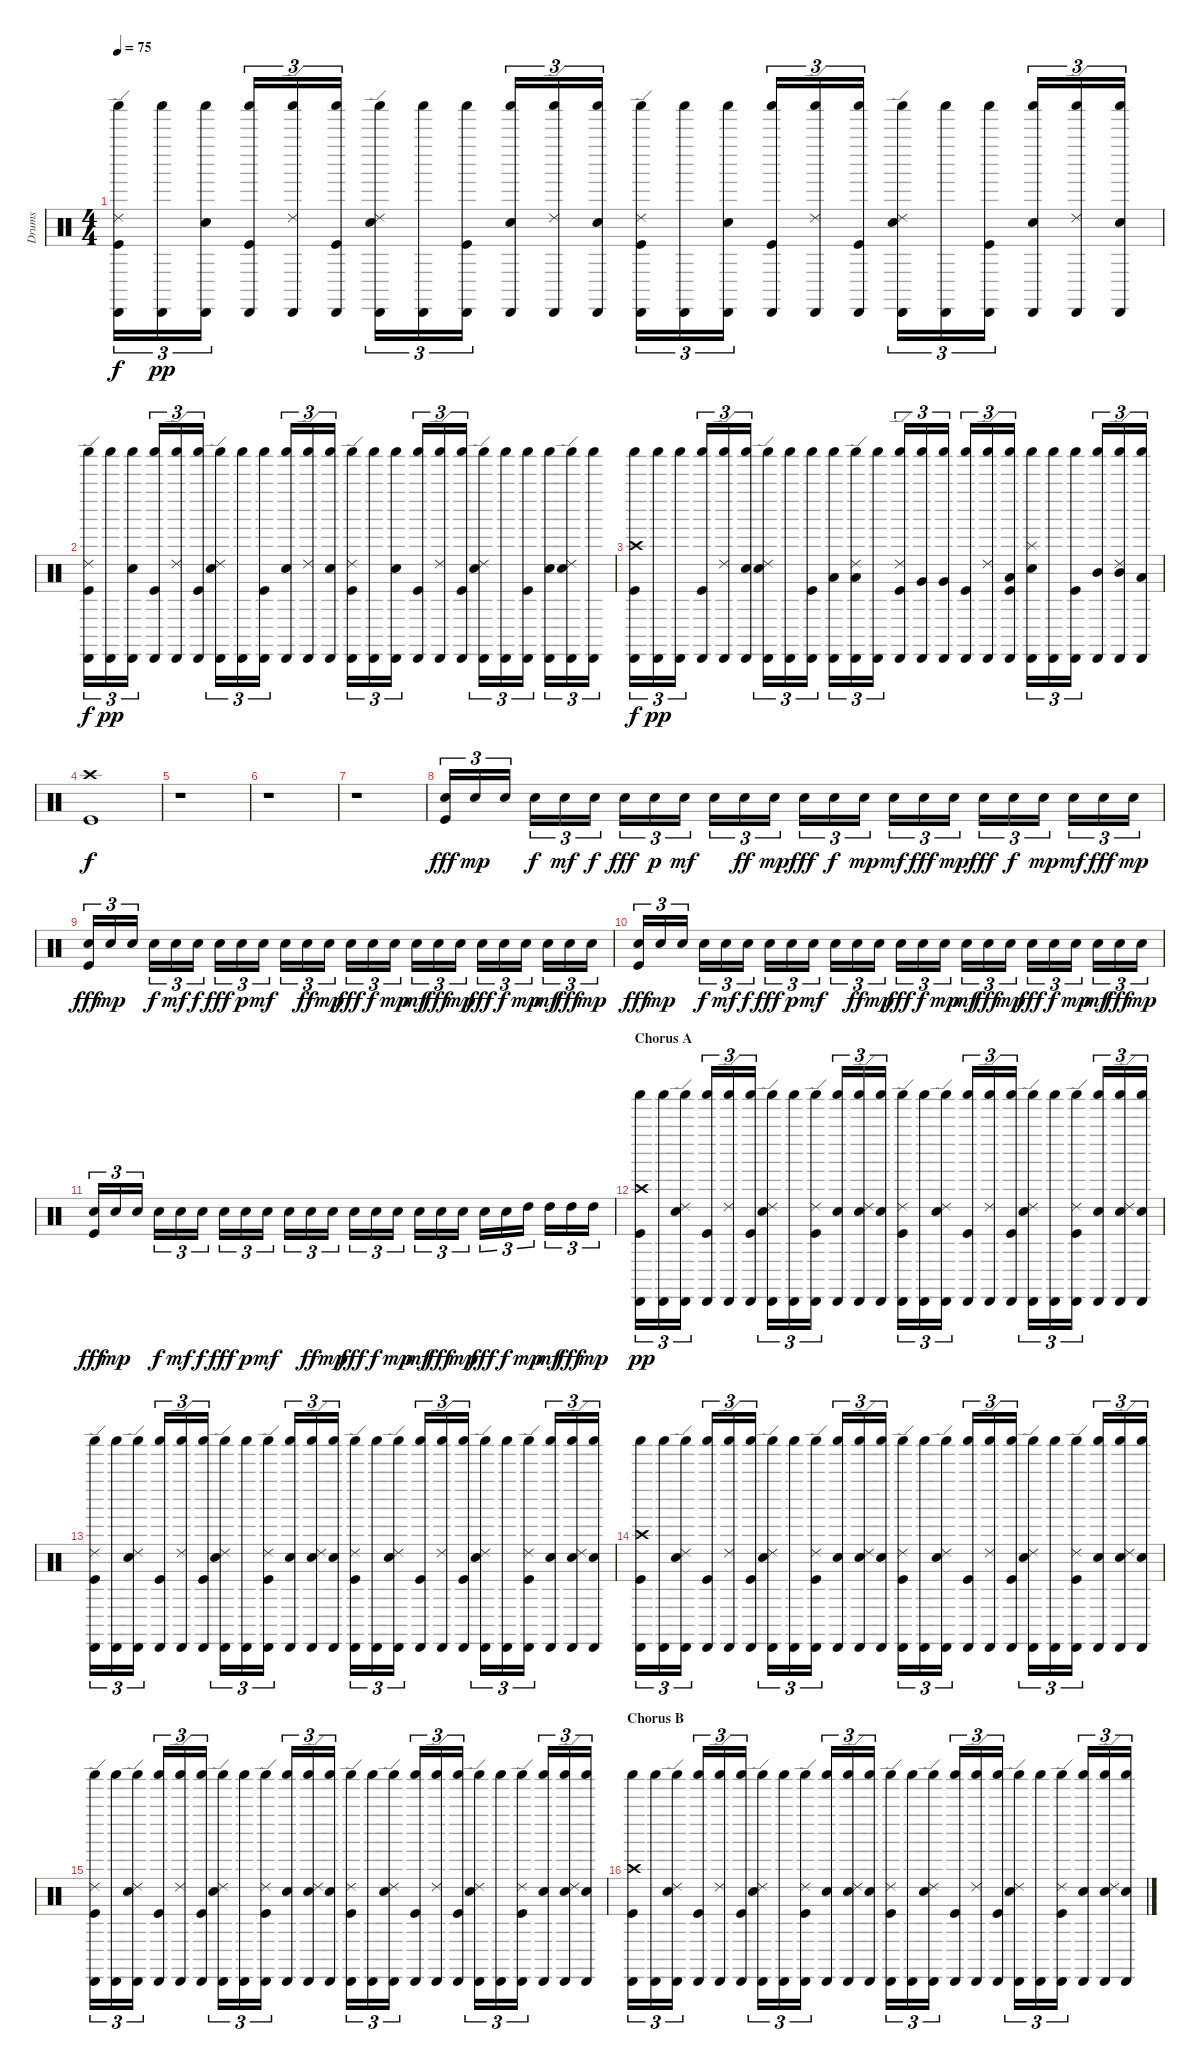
\track ("Drums" "Drums") {instrument percussion}
\staff {score}
\articulation defaults
\ts (4 4)
\tempo 75
\clef neutral
\ks c
("Cabasa (hit)" "Shaker (hit)" "Ride (edge) 2" "Kick (hit)").16{tu (3 2) dy f} ("Cabasa (hit)" "Shaker (hit)").16{tu (3 2) dy pp} ("Electric Snare (hit)" "Cabasa (hit)" "Shaker (hit)").16{tu (3 2)} ("Cabasa (hit)" "Kick (hit)" "Shaker (hit)").16{tu (3 2)} ("Cabasa (hit)" "Ride (edge) 2" "Shaker (hit)").16{tu (3 2)} ("Kick (hit)" "Cabasa (hit)" "Shaker (hit)").16{tu (3 2)} ("Cabasa (hit)" "Electric Snare (hit)" "Ride (edge) 2" "Shaker (hit)").16{tu (3 2)} ("Cabasa (hit)" "Shaker (hit)").16{tu (3 2)} ("Kick (hit)" "Cabasa (hit)" "Shaker (hit)").16{tu (3 2)} ("Electric Snare (hit)" "Cabasa (hit)" "Shaker (hit)").16{tu (3 2)} ("Cabasa (hit)" "Ride (edge) 2" "Shaker (hit)").16{tu (3 2)} ("Electric Snare (hit)" "Cabasa (hit)" "Shaker (hit)").16{tu (3 2)} ("Kick (hit)" "Ride (edge) 2" "Cabasa (hit)" "Shaker (hit)").16{tu (3 2)} ("Cabasa (hit)" "Shaker (hit)").16{tu (3 2)} ("Cabasa (hit)" "Electric Snare (hit)" "Shaker (hit)").16{tu (3 2)} ("Cabasa (hit)" "Kick (hit)" "Shaker (hit)").16{tu (3 2)} ("Cabasa (hit)" "Ride (edge) 2" "Shaker (hit)").16{tu (3 2)} ("Kick (hit)" "Cabasa (hit)" "Shaker (hit)").16{tu (3 2)} ("Ride (edge) 2" "Electric Snare (hit)" "Cabasa (hit)" "Shaker (hit)").16{tu (3 2)} ("Cabasa (hit)" "Shaker (hit)").16{tu (3 2)} ("Cabasa (hit)" "Kick (hit)" "Shaker (hit)").16{tu (3 2)} ("Cabasa (hit)" "Electric Snare (hit)" "Shaker (hit)").16{tu (3 2)} ("Ride (edge) 2" "Cabasa (hit)" "Shaker (hit)").16{tu (3 2)} ("Electric Snare (hit)" "Cabasa (hit)" "Shaker (hit)").16{tu (3 2)} |
("Cabasa (hit)" "Shaker (hit)" "Kick (hit)" "Ride (edge) 2").16{tu (3 2) dy f} ("Cabasa (hit)" "Shaker (hit)").16{tu (3 2) dy pp} ("Cabasa (hit)" "Electric Snare (hit)" "Shaker (hit)").16{tu (3 2)} ("Cabasa (hit)" "Kick (hit)" "Shaker (hit)").16{tu (3 2)} ("Cabasa (hit)" "Ride (edge) 2" "Shaker (hit)").16{tu (3 2)} ("Kick (hit)" "Cabasa (hit)" "Shaker (hit)").16{tu (3 2)} ("Cabasa (hit)" "Ride (edge) 2" "Electric Snare (hit)" "Shaker (hit)").16{tu (3 2)} ("Cabasa (hit)" "Shaker (hit)").16{tu (3 2)} ("Kick (hit)" "Cabasa (hit)" "Shaker (hit)").16{tu (3 2)} ("Cabasa (hit)" "Electric Snare (hit)" "Shaker (hit)").16{tu (3 2)} ("Ride (edge) 2" "Cabasa (hit)" "Shaker (hit)").16{tu (3 2)} ("Electric Snare (hit)" "Cabasa (hit)" "Shaker (hit)").16{tu (3 2)} ("Cabasa (hit)" "Kick (hit)" "Ride (edge) 2" "Shaker (hit)").16{tu (3 2)} ("Cabasa (hit)" "Shaker (hit)").16{tu (3 2)} ("Cabasa (hit)" "Electric Snare (hit)" "Shaker (hit)").16{tu (3 2)} ("Cabasa (hit)" "Kick (hit)" "Shaker (hit)").16{tu (3 2)} ("Cabasa (hit)" "Ride (edge) 2" "Shaker (hit)").16{tu (3 2)} ("Kick (hit)" "Cabasa (hit)" "Shaker (hit)").16{tu (3 2)} ("Cabasa (hit)" "Ride (edge) 2" "Electric Snare (hit)" "Shaker (hit)").16{tu (3 2)} ("Cabasa (hit)" "Shaker (hit)").16{tu (3 2)} ("Kick (hit)" "Cabasa (hit)" "Shaker (hit)").16{tu (3 2)} ("Cabasa (hit)" "Electric Snare (hit)" "Shaker (hit)").16{tu (3 2)} ("Ride (edge) 2" "Electric Snare (hit)" "Cabasa (hit)" "Shaker (hit)").16{tu (3 2)} ("Cabasa (hit)" "Shaker (hit)").16{tu (3 2)} |
("Crash high (hit)" "Kick (hit)" "Cabasa (hit)" "Shaker (hit)").16{tu (3 2) dy f} ("Cabasa (hit)" "Shaker (hit)").16{tu (3 2) dy pp} ("Cabasa (hit)" "Shaker (hit)").16{tu (3 2)} ("Kick (hit)" "Cabasa (hit)" "Shaker (hit)").16{tu (3 2)} ("Ride (edge) 2" "Cabasa (hit)" "Shaker (hit)").16{tu (3 2)} ("Electric Snare (hit)" "Cabasa (hit)" "Shaker (hit)").16{tu (3 2)} ("Cabasa (hit)" "Ride (edge) 2" "Electric Snare (hit)" "Shaker (hit)").16{tu (3 2)} ("Cabasa (hit)" "Shaker (hit)").16{tu (3 2)} ("Kick (hit)" "Cabasa (hit)" "Shaker (hit)").16{tu (3 2)} ("Low Tom (hit)" "Cabasa (hit)" "Shaker (hit)").16{tu (3 2)} ("Low Tom (hit)" "Ride (edge) 2" "Cabasa (hit)" "Shaker (hit)").16{tu (3 2)} ("Cabasa (hit)" "Shaker (hit)").16{tu (3 2)} ("Kick (hit)" "Cabasa (hit)" "Ride (edge) 2" "Shaker (hit)").16{tu (3 2)} ("Very Low Tom (hit)" "Cabasa (hit)" "Shaker (hit)").16{tu (3 2)} ("Cabasa (hit)" "Very Low Tom (hit)" "Shaker (hit)").16{tu (3 2)} ("Cabasa (hit)" "Kick (hit)" "Shaker (hit)").16{tu (3 2)} ("Ride (edge) 2" "Cabasa (hit)" "Shaker (hit)").16{tu (3 2)} ("Low Floor Tom (hit)" "Cabasa (hit)" "Kick (hit)" "Shaker (hit)").16{tu (3 2)} ("Electric Snare (hit)" "Cabasa (hit)" "Splash (hit)" "Shaker (hit)").16{tu (3 2)} ("Cabasa (hit)" "Shaker (hit)").16{tu (3 2)} ("Cabasa (hit)" "Kick (hit)" "Shaker (hit)").16{tu (3 2)} ("Cabasa (hit)" "Mid Tom (hit)" "Shaker (hit)").16{tu (3 2)} ("Ride (edge) 2" "Mid Tom (hit)" "Cabasa (hit)" "Shaker (hit)").16{tu (3 2)} ("Low Tom (hit)" "Cabasa (hit)" "Shaker (hit)").16{tu (3 2)} |
("Kick (hit)" "Crash high (hit)").1{dy f} |
r.1 |
r.1 |
r.1 |
("Kick (hit)" "Electric Snare (hit)").16{tu (3 2) dy fff} "Electric Snare (hit)".16{tu (3 2) dy mp} "Electric Snare (hit)".16{tu (3 2)} "Electric Snare (hit)".16{tu (3 2) dy f} "Electric Snare (hit)".16{tu (3 2) dy mf} "Electric Snare (hit)".16{tu (3 2) dy f} "Electric Snare (hit)".16{tu (3 2) dy fff} "Electric Snare (hit)".16{tu (3 2) dy p} "Electric Snare (hit)".16{tu (3 2) dy mf} "Electric Snare (hit)".16{tu (3 2)} "Electric Snare (hit)".16{tu (3 2) dy ff} "Electric Snare (hit)".16{tu (3 2) dy mp} "Electric Snare (hit)".16{tu (3 2) dy fff} "Electric Snare (hit)".16{tu (3 2) dy f} "Electric Snare (hit)".16{tu (3 2) dy mp} "Electric Snare (hit)".16{tu (3 2) dy mf} "Electric Snare (hit)".16{tu (3 2) dy fff} "Electric Snare (hit)".16{tu (3 2) dy mp} "Electric Snare (hit)".16{tu (3 2) dy fff} "Electric Snare (hit)".16{tu (3 2) dy f} "Electric Snare (hit)".16{tu (3 2) dy mp} "Electric Snare (hit)".16{tu (3 2) dy mf} "Electric Snare (hit)".16{tu (3 2) dy fff} "Electric Snare (hit)".16{tu (3 2) dy mp} |
("Kick (hit)" "Electric Snare (hit)").16{tu (3 2) dy fff} "Electric Snare (hit)".16{tu (3 2) dy mp} "Electric Snare (hit)".16{tu (3 2)} "Electric Snare (hit)".16{tu (3 2) dy f} "Electric Snare (hit)".16{tu (3 2) dy mf} "Electric Snare (hit)".16{tu (3 2) dy f} "Electric Snare (hit)".16{tu (3 2) dy fff} "Electric Snare (hit)".16{tu (3 2) dy p} "Electric Snare (hit)".16{tu (3 2) dy mf} "Electric Snare (hit)".16{tu (3 2)} "Electric Snare (hit)".16{tu (3 2) dy ff} "Electric Snare (hit)".16{tu (3 2) dy mp} "Electric Snare (hit)".16{tu (3 2) dy fff} "Electric Snare (hit)".16{tu (3 2) dy f} "Electric Snare (hit)".16{tu (3 2) dy mp} "Electric Snare (hit)".16{tu (3 2) dy mf} "Electric Snare (hit)".16{tu (3 2) dy fff} "Electric Snare (hit)".16{tu (3 2) dy mp} "Electric Snare (hit)".16{tu (3 2) dy fff} "Electric Snare (hit)".16{tu (3 2) dy f} "Electric Snare (hit)".16{tu (3 2) dy mp} "Electric Snare (hit)".16{tu (3 2) dy mf} "Electric Snare (hit)".16{tu (3 2) dy fff} "Electric Snare (hit)".16{tu (3 2) dy mp} |
("Kick (hit)" "Electric Snare (hit)").16{tu (3 2) dy fff} "Electric Snare (hit)".16{tu (3 2) dy mp} "Electric Snare (hit)".16{tu (3 2)} "Electric Snare (hit)".16{tu (3 2) dy f} "Electric Snare (hit)".16{tu (3 2) dy mf} "Electric Snare (hit)".16{tu (3 2) dy f} "Electric Snare (hit)".16{tu (3 2) dy fff} "Electric Snare (hit)".16{tu (3 2) dy p} "Electric Snare (hit)".16{tu (3 2) dy mf} "Electric Snare (hit)".16{tu (3 2)} "Electric Snare (hit)".16{tu (3 2) dy ff} "Electric Snare (hit)".16{tu (3 2) dy mp} "Electric Snare (hit)".16{tu (3 2) dy fff} "Electric Snare (hit)".16{tu (3 2) dy f} "Electric Snare (hit)".16{tu (3 2) dy mp} "Electric Snare (hit)".16{tu (3 2) dy mf} "Electric Snare (hit)".16{tu (3 2) dy fff} "Electric Snare (hit)".16{tu (3 2) dy mp} "Electric Snare (hit)".16{tu (3 2) dy fff} "Electric Snare (hit)".16{tu (3 2) dy f} "Electric Snare (hit)".16{tu (3 2) dy mp} "Electric Snare (hit)".16{tu (3 2) dy mf} "Electric Snare (hit)".16{tu (3 2) dy fff} "Electric Snare (hit)".16{tu (3 2) dy mp} |
("Kick (hit)" "Electric Snare (hit)").16{tu (3 2) dy fff} "Electric Snare (hit)".16{tu (3 2) dy mp} "Electric Snare (hit)".16{tu (3 2)} "Electric Snare (hit)".16{tu (3 2) dy f} "Electric Snare (hit)".16{tu (3 2) dy mf} "Electric Snare (hit)".16{tu (3 2) dy f} "Electric Snare (hit)".16{tu (3 2) dy fff} "Electric Snare (hit)".16{tu (3 2) dy p} "Electric Snare (hit)".16{tu (3 2) dy mf} "Electric Snare (hit)".16{tu (3 2)} "Electric Snare (hit)".16{tu (3 2) dy ff} "Electric Snare (hit)".16{tu (3 2) dy mp} "Electric Snare (hit)".16{tu (3 2) dy fff} "Electric Snare (hit)".16{tu (3 2) dy f} "Electric Snare (hit)".16{tu (3 2) dy mp} "Electric Snare (hit)".16{tu (3 2) dy mf} "Electric Snare (hit)".16{tu (3 2) dy fff} "Electric Snare (hit)".16{tu (3 2) dy mp} "Electric Snare (hit)".16{tu (3 2) dy fff} "Electric Snare (hit)".16{tu (3 2) dy f} "High Tom (hit)".16{tu (3 2) dy mp} "High Tom (hit)".16{tu (3 2) dy mf} "High Tom (hit)".16{tu (3 2) dy fff} "High Tom (hit)".16{tu (3 2) dy mp} |
\section ("" "Chorus A")
("Kick (hit)" "Cabasa (hit)" "Crash high (hit)" "Shaker (hit)").16{tu (3 2) dy pp} ("Cabasa (hit)" "Shaker (hit)").16{tu (3 2)} ("Electric Snare (hit)" "Ride (edge) 2" "Cabasa (hit)" "Shaker (hit)").16{tu (3 2)} ("Kick (hit)" "Cabasa (hit)" "Shaker (hit)").16{tu (3 2)} ("Cabasa (hit)" "Ride (edge) 2" "Shaker (hit)").16{tu (3 2)} ("Kick (hit)" "Cabasa (hit)" "Shaker (hit)").16{tu (3 2)} ("Ride (edge) 2" "Cabasa (hit)" "Electric Snare (hit)" "Shaker (hit)").16{tu (3 2)} ("Cabasa (hit)" "Shaker (hit)").16{tu (3 2)} ("Cabasa (hit)" "Ride (edge) 2" "Kick (hit)" "Shaker (hit)").16{tu (3 2)} ("Cabasa (hit)" "Electric Snare (hit)" "Shaker (hit)").16{tu (3 2)} ("Electric Snare (hit)" "Cabasa (hit)" "Ride (edge) 2" "Shaker (hit)").16{tu (3 2)} ("Cabasa (hit)" "Electric Snare (hit)" "Shaker (hit)").16{tu (3 2)} ("Cabasa (hit)" "Kick (hit)" "Ride (edge) 2" "Shaker (hit)").16{tu (3 2)} ("Cabasa (hit)" "Shaker (hit)").16{tu (3 2)} ("Ride (edge) 2" "Cabasa (hit)" "Electric Snare (hit)" "Shaker (hit)").16{tu (3 2)} ("Cabasa (hit)" "Kick (hit)" "Shaker (hit)").16{tu (3 2)} ("Cabasa (hit)" "Ride (edge) 2" "Shaker (hit)").16{tu (3 2)} ("Kick (hit)" "Cabasa (hit)" "Shaker (hit)").16{tu (3 2)} ("Electric Snare (hit)" "Cabasa (hit)" "Ride (edge) 2" "Shaker (hit)").16{tu (3 2)} ("Cabasa (hit)" "Shaker (hit)").16{tu (3 2)} ("Cabasa (hit)" "Kick (hit)" "Ride (edge) 2" "Shaker (hit)").16{tu (3 2)} ("Cabasa (hit)" "Electric Snare (hit)" "Shaker (hit)").16{tu (3 2)} ("Electric Snare (hit)" "Ride (edge) 2" "Cabasa (hit)" "Shaker (hit)").16{tu (3 2)} ("Cabasa (hit)" "Electric Snare (hit)" "Shaker (hit)").16{tu (3 2)} |
("Kick (hit)" "Ride (edge) 2" "Cabasa (hit)" "Shaker (hit)").16{tu (3 2)} ("Cabasa (hit)" "Shaker (hit)").16{tu (3 2)} ("Ride (edge) 2" "Cabasa (hit)" "Electric Snare (hit)" "Shaker (hit)").16{tu (3 2)} ("Cabasa (hit)" "Kick (hit)" "Shaker (hit)").16{tu (3 2)} ("Ride (edge) 2" "Cabasa (hit)" "Shaker (hit)").16{tu (3 2)} ("Cabasa (hit)" "Kick (hit)" "Shaker (hit)").16{tu (3 2)} ("Ride (edge) 2" "Cabasa (hit)" "Electric Snare (hit)" "Shaker (hit)").16{tu (3 2)} ("Cabasa (hit)" "Shaker (hit)").16{tu (3 2)} ("Kick (hit)" "Ride (edge) 2" "Cabasa (hit)" "Shaker (hit)").16{tu (3 2)} ("Cabasa (hit)" "Electric Snare (hit)" "Shaker (hit)").16{tu (3 2)} ("Electric Snare (hit)" "Ride (edge) 2" "Cabasa (hit)" "Shaker (hit)").16{tu (3 2)} ("Cabasa (hit)" "Electric Snare (hit)" "Shaker (hit)").16{tu (3 2)} ("Cabasa (hit)" "Kick (hit)" "Ride (edge) 2" "Shaker (hit)").16{tu (3 2)} ("Cabasa (hit)" "Shaker (hit)").16{tu (3 2)} ("Electric Snare (hit)" "Ride (edge) 2" "Cabasa (hit)" "Shaker (hit)").16{tu (3 2)} ("Kick (hit)" "Cabasa (hit)" "Shaker (hit)").16{tu (3 2)} ("Ride (edge) 2" "Cabasa (hit)" "Shaker (hit)").16{tu (3 2)} ("Cabasa (hit)" "Kick (hit)" "Shaker (hit)").16{tu (3 2)} ("Cabasa (hit)" "Ride (edge) 2" "Electric Snare (hit)" "Shaker (hit)").16{tu (3 2)} ("Cabasa (hit)" "Shaker (hit)").16{tu (3 2)} ("Cabasa (hit)" "Ride (edge) 2" "Kick (hit)" "Shaker (hit)").16{tu (3 2)} ("Cabasa (hit)" "Electric Snare (hit)" "Shaker (hit)").16{tu (3 2)} ("Electric Snare (hit)" "Ride (edge) 2" "Cabasa (hit)" "Shaker (hit)").16{tu (3 2)} ("Cabasa (hit)" "Electric Snare (hit)" "Shaker (hit)").16{tu (3 2)} |
("Kick (hit)" "Cabasa (hit)" "Crash high (hit)" "Shaker (hit)").16{tu (3 2)} ("Cabasa (hit)" "Shaker (hit)").16{tu (3 2)} ("Electric Snare (hit)" "Ride (edge) 2" "Cabasa (hit)" "Shaker (hit)").16{tu (3 2)} ("Kick (hit)" "Cabasa (hit)" "Shaker (hit)").16{tu (3 2)} ("Cabasa (hit)" "Ride (edge) 2" "Shaker (hit)").16{tu (3 2)} ("Kick (hit)" "Cabasa (hit)" "Shaker (hit)").16{tu (3 2)} ("Ride (edge) 2" "Cabasa (hit)" "Electric Snare (hit)" "Shaker (hit)").16{tu (3 2)} ("Cabasa (hit)" "Shaker (hit)").16{tu (3 2)} ("Cabasa (hit)" "Ride (edge) 2" "Kick (hit)" "Shaker (hit)").16{tu (3 2)} ("Cabasa (hit)" "Electric Snare (hit)" "Shaker (hit)").16{tu (3 2)} ("Electric Snare (hit)" "Cabasa (hit)" "Ride (edge) 2" "Shaker (hit)").16{tu (3 2)} ("Cabasa (hit)" "Electric Snare (hit)" "Shaker (hit)").16{tu (3 2)} ("Cabasa (hit)" "Kick (hit)" "Ride (edge) 2" "Shaker (hit)").16{tu (3 2)} ("Cabasa (hit)" "Shaker (hit)").16{tu (3 2)} ("Ride (edge) 2" "Cabasa (hit)" "Electric Snare (hit)" "Shaker (hit)").16{tu (3 2)} ("Cabasa (hit)" "Kick (hit)" "Shaker (hit)").16{tu (3 2)} ("Cabasa (hit)" "Ride (edge) 2" "Shaker (hit)").16{tu (3 2)} ("Kick (hit)" "Cabasa (hit)" "Shaker (hit)").16{tu (3 2)} ("Electric Snare (hit)" "Cabasa (hit)" "Ride (edge) 2" "Shaker (hit)").16{tu (3 2)} ("Cabasa (hit)" "Shaker (hit)").16{tu (3 2)} ("Cabasa (hit)" "Kick (hit)" "Ride (edge) 2" "Shaker (hit)").16{tu (3 2)} ("Cabasa (hit)" "Electric Snare (hit)" "Shaker (hit)").16{tu (3 2)} ("Electric Snare (hit)" "Ride (edge) 2" "Cabasa (hit)" "Shaker (hit)").16{tu (3 2)} ("Cabasa (hit)" "Electric Snare (hit)" "Shaker (hit)").16{tu (3 2)} |
("Kick (hit)" "Ride (edge) 2" "Cabasa (hit)" "Shaker (hit)").16{tu (3 2)} ("Cabasa (hit)" "Shaker (hit)").16{tu (3 2)} ("Ride (edge) 2" "Cabasa (hit)" "Electric Snare (hit)" "Shaker (hit)").16{tu (3 2)} ("Cabasa (hit)" "Kick (hit)" "Shaker (hit)").16{tu (3 2)} ("Ride (edge) 2" "Cabasa (hit)" "Shaker (hit)").16{tu (3 2)} ("Cabasa (hit)" "Kick (hit)" "Shaker (hit)").16{tu (3 2)} ("Ride (edge) 2" "Cabasa (hit)" "Electric Snare (hit)" "Shaker (hit)").16{tu (3 2)} ("Cabasa (hit)" "Shaker (hit)").16{tu (3 2)} ("Kick (hit)" "Ride (edge) 2" "Cabasa (hit)" "Shaker (hit)").16{tu (3 2)} ("Cabasa (hit)" "Electric Snare (hit)" "Shaker (hit)").16{tu (3 2)} ("Electric Snare (hit)" "Ride (edge) 2" "Cabasa (hit)" "Shaker (hit)").16{tu (3 2)} ("Cabasa (hit)" "Electric Snare (hit)" "Shaker (hit)").16{tu (3 2)} ("Cabasa (hit)" "Kick (hit)" "Ride (edge) 2" "Shaker (hit)").16{tu (3 2)} ("Cabasa (hit)" "Shaker (hit)").16{tu (3 2)} ("Electric Snare (hit)" "Ride (edge) 2" "Cabasa (hit)" "Shaker (hit)").16{tu (3 2)} ("Kick (hit)" "Cabasa (hit)" "Shaker (hit)").16{tu (3 2)} ("Ride (edge) 2" "Cabasa (hit)" "Shaker (hit)").16{tu (3 2)} ("Cabasa (hit)" "Kick (hit)" "Shaker (hit)").16{tu (3 2)} ("Cabasa (hit)" "Ride (edge) 2" "Electric Snare (hit)" "Shaker (hit)").16{tu (3 2)} ("Cabasa (hit)" "Shaker (hit)").16{tu (3 2)} ("Cabasa (hit)" "Ride (edge) 2" "Kick (hit)" "Shaker (hit)").16{tu (3 2)} ("Cabasa (hit)" "Electric Snare (hit)" "Shaker (hit)").16{tu (3 2)} ("Electric Snare (hit)" "Ride (edge) 2" "Cabasa (hit)" "Shaker (hit)").16{tu (3 2)} ("Cabasa (hit)" "Electric Snare (hit)" "Shaker (hit)").16{tu (3 2)} |
\section ("" "Chorus B")
("Kick (hit)" "Cabasa (hit)" "Crash high (hit)" "Shaker (hit)").16{tu (3 2)} ("Cabasa (hit)" "Shaker (hit)").16{tu (3 2)} ("Electric Snare (hit)" "Ride (edge) 2" "Cabasa (hit)" "Shaker (hit)").16{tu (3 2)} ("Kick (hit)" "Cabasa (hit)" "Shaker (hit)").16{tu (3 2)} ("Cabasa (hit)" "Ride (edge) 2" "Shaker (hit)").16{tu (3 2)} ("Kick (hit)" "Cabasa (hit)" "Shaker (hit)").16{tu (3 2)} ("Ride (edge) 2" "Cabasa (hit)" "Electric Snare (hit)" "Shaker (hit)").16{tu (3 2)} ("Cabasa (hit)" "Shaker (hit)").16{tu (3 2)} ("Cabasa (hit)" "Ride (edge) 2" "Kick (hit)" "Shaker (hit)").16{tu (3 2)} ("Cabasa (hit)" "Electric Snare (hit)" "Shaker (hit)").16{tu (3 2)} ("Electric Snare (hit)" "Cabasa (hit)" "Ride (edge) 2" "Shaker (hit)").16{tu (3 2)} ("Cabasa (hit)" "Electric Snare (hit)" "Shaker (hit)").16{tu (3 2)} ("Cabasa (hit)" "Kick (hit)" "Ride (edge) 2" "Shaker (hit)").16{tu (3 2)} ("Cabasa (hit)" "Shaker (hit)").16{tu (3 2)} ("Ride (edge) 2" "Cabasa (hit)" "Electric Snare (hit)" "Shaker (hit)").16{tu (3 2)} ("Cabasa (hit)" "Kick (hit)" "Shaker (hit)").16{tu (3 2)} ("Cabasa (hit)" "Ride (edge) 2" "Shaker (hit)").16{tu (3 2)} ("Kick (hit)" "Cabasa (hit)" "Shaker (hit)").16{tu (3 2)} ("Electric Snare (hit)" "Cabasa (hit)" "Ride (edge) 2" "Shaker (hit)").16{tu (3 2)} ("Cabasa (hit)" "Shaker (hit)").16{tu (3 2)} ("Cabasa (hit)" "Kick (hit)" "Ride (edge) 2" "Shaker (hit)").16{tu (3 2)} ("Cabasa (hit)" "Electric Snare (hit)" "Shaker (hit)").16{tu (3 2)} ("Electric Snare (hit)" "Ride (edge) 2" "Cabasa (hit)" "Shaker (hit)").16{tu (3 2)} ("Cabasa (hit)" "Electric Snare (hit)" "Shaker (hit)").16{tu (3 2)}
